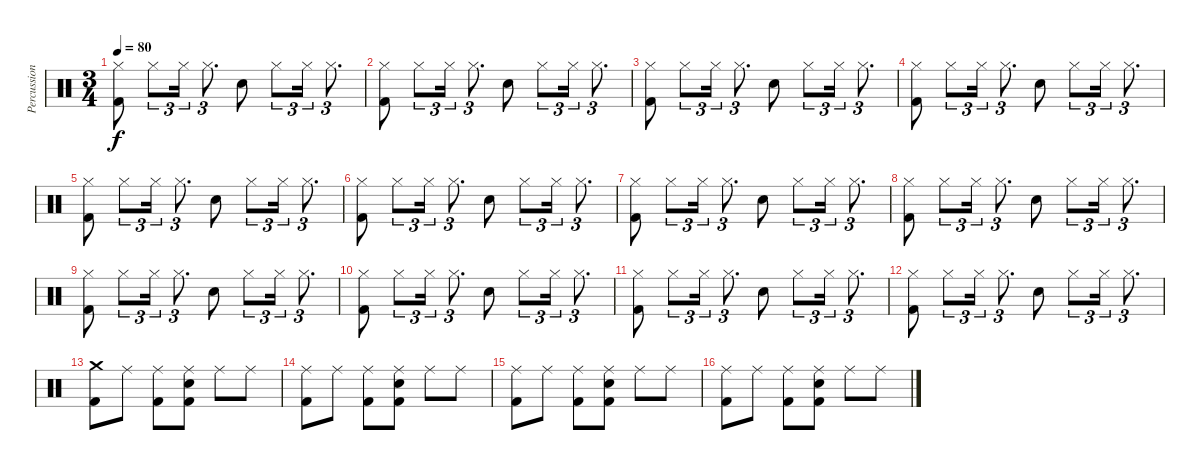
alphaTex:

\track ("Percussion" "Percussion") {instrument percussion}
\staff {score}
\articulation defaults
\ts (3 4)
\tempo 80
\clef neutral
\ks c
("Hi-Hat (closed)" "Kick (hit) 2").8{dy f} "Hi-Hat (closed)".8{tu (3 2)} "Hi-Hat (closed)".16{tu (3 2)} "Hi-Hat (closed)".8{d tu (3 2)} "Snare (hit) 2".8 "Hi-Hat (closed)".8{tu (3 2)} "Hi-Hat (closed)".16{tu (3 2)} "Hi-Hat (closed)".8{d tu (3 2)} |
("Hi-Hat (closed)" "Kick (hit) 2").8 "Hi-Hat (closed)".8{tu (3 2)} "Hi-Hat (closed)".16{tu (3 2)} "Hi-Hat (closed)".8{d tu (3 2)} "Snare (hit) 2".8 "Hi-Hat (closed)".8{tu (3 2)} "Hi-Hat (closed)".16{tu (3 2)} "Hi-Hat (closed)".8{d tu (3 2)} |
("Hi-Hat (closed)" "Kick (hit) 2").8 "Hi-Hat (closed)".8{tu (3 2)} "Hi-Hat (closed)".16{tu (3 2)} "Hi-Hat (closed)".8{d tu (3 2)} "Snare (hit) 2".8 "Hi-Hat (closed)".8{tu (3 2)} "Hi-Hat (closed)".16{tu (3 2)} "Hi-Hat (closed)".8{d tu (3 2)} |
("Hi-Hat (closed)" "Kick (hit) 2").8 "Hi-Hat (closed)".8{tu (3 2)} "Hi-Hat (closed)".16{tu (3 2)} "Hi-Hat (closed)".8{d tu (3 2)} "Snare (hit) 2".8 "Hi-Hat (closed)".8{tu (3 2)} "Hi-Hat (closed)".16{tu (3 2)} "Hi-Hat (closed)".8{d tu (3 2)} |
("Hi-Hat (closed)" "Kick (hit) 2").8 "Hi-Hat (closed)".8{tu (3 2)} "Hi-Hat (closed)".16{tu (3 2)} "Hi-Hat (closed)".8{d tu (3 2)} "Snare (hit) 2".8 "Hi-Hat (closed)".8{tu (3 2)} "Hi-Hat (closed)".16{tu (3 2)} "Hi-Hat (closed)".8{d tu (3 2)} |
("Hi-Hat (closed)" "Kick (hit) 2").8 "Hi-Hat (closed)".8{tu (3 2)} "Hi-Hat (closed)".16{tu (3 2)} "Hi-Hat (closed)".8{d tu (3 2)} "Snare (hit) 2".8 "Hi-Hat (closed)".8{tu (3 2)} "Hi-Hat (closed)".16{tu (3 2)} "Hi-Hat (closed)".8{d tu (3 2)} |
("Hi-Hat (closed)" "Kick (hit) 2").8 "Hi-Hat (closed)".8{tu (3 2)} "Hi-Hat (closed)".16{tu (3 2)} "Hi-Hat (closed)".8{d tu (3 2)} "Snare (hit) 2".8 "Hi-Hat (closed)".8{tu (3 2)} "Hi-Hat (closed)".16{tu (3 2)} "Hi-Hat (closed)".8{d tu (3 2)} |
("Hi-Hat (closed)" "Kick (hit) 2").8 "Hi-Hat (closed)".8{tu (3 2)} "Hi-Hat (closed)".16{tu (3 2)} "Hi-Hat (closed)".8{d tu (3 2)} "Snare (hit) 2".8 "Hi-Hat (closed)".8{tu (3 2)} "Hi-Hat (closed)".16{tu (3 2)} "Hi-Hat (closed)".8{d tu (3 2)} |
("Hi-Hat (closed)" "Kick (hit) 2").8 "Hi-Hat (closed)".8{tu (3 2)} "Hi-Hat (closed)".16{tu (3 2)} "Hi-Hat (closed)".8{d tu (3 2)} "Snare (hit) 2".8 "Hi-Hat (closed)".8{tu (3 2)} "Hi-Hat (closed)".16{tu (3 2)} "Hi-Hat (closed)".8{d tu (3 2)} |
("Hi-Hat (closed)" "Kick (hit) 2").8 "Hi-Hat (closed)".8{tu (3 2)} "Hi-Hat (closed)".16{tu (3 2)} "Hi-Hat (closed)".8{d tu (3 2)} "Snare (hit) 2".8 "Hi-Hat (closed)".8{tu (3 2)} "Hi-Hat (closed)".16{tu (3 2)} "Hi-Hat (closed)".8{d tu (3 2)} |
("Hi-Hat (closed)" "Kick (hit) 2").8 "Hi-Hat (closed)".8{tu (3 2)} "Hi-Hat (closed)".16{tu (3 2)} "Hi-Hat (closed)".8{d tu (3 2)} "Snare (hit) 2".8 "Hi-Hat (closed)".8{tu (3 2)} "Hi-Hat (closed)".16{tu (3 2)} "Hi-Hat (closed)".8{d tu (3 2)} |
("Hi-Hat (closed)" "Kick (hit) 2").8 "Hi-Hat (closed)".8{tu (3 2)} "Hi-Hat (closed)".16{tu (3 2)} "Hi-Hat (closed)".8{d tu (3 2)} "Snare (hit) 2".8 "Hi-Hat (closed)".8{tu (3 2)} "Hi-Hat (closed)".16{tu (3 2)} "Hi-Hat (closed)".8{d tu (3 2)} |
("Crash medium (hit)" "Kick (hit) 2").8 "Ride (middle)".8 ("Ride (middle)" "Kick (hit) 2").8 ("Ride (middle)" "Snare (hit) 2" "Kick (hit) 2").8 "Ride (middle)".8 "Ride (middle)".8 |
("Ride (middle)" "Kick (hit) 2").8 "Ride (middle)".8 ("Ride (middle)" "Kick (hit) 2").8 ("Ride (middle)" "Snare (hit) 2" "Kick (hit) 2").8 "Ride (middle)".8 "Ride (middle)".8 |
("Ride (middle)" "Kick (hit) 2").8 "Ride (middle)".8 ("Ride (middle)" "Kick (hit) 2").8 ("Ride (middle)" "Snare (hit) 2" "Kick (hit) 2").8 "Ride (middle)".8 "Ride (middle)".8 |
("Ride (middle)" "Kick (hit) 2").8 "Ride (middle)".8 ("Ride (middle)" "Kick (hit) 2").8 ("Ride (middle)" "Snare (hit) 2" "Kick (hit) 2").8 "Ride (middle)".8 "Ride (middle)".8
